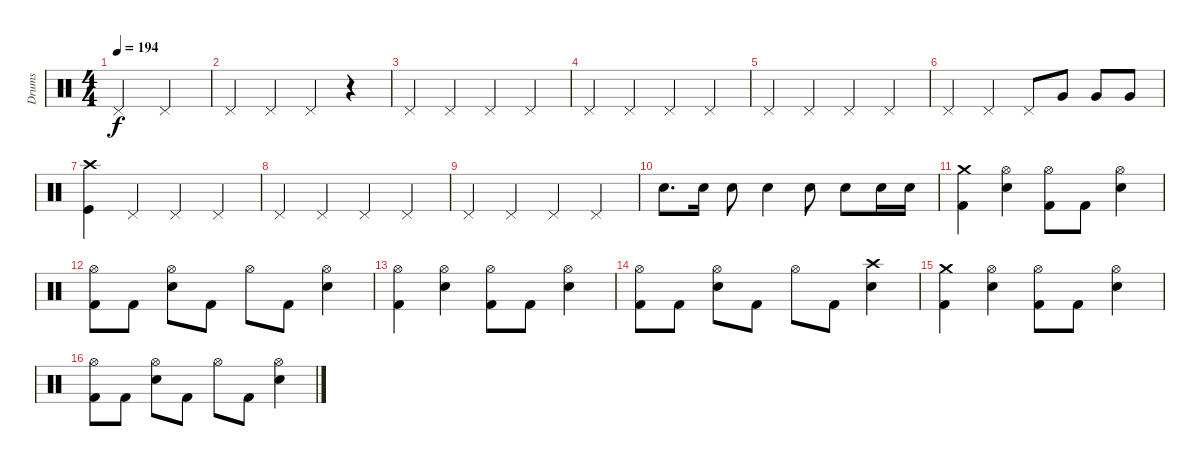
\track ("Drums" "Drums") {instrument percussion}
\staff {score}
\articulation defaults
\ts (4 4)
\tempo 194
\clef neutral
\ks c "Pedal Hi-Hat (hit)".2{dy f} "Pedal Hi-Hat (hit)".2
|
"Pedal Hi-Hat (hit)".4 "Pedal Hi-Hat (hit)".4 "Pedal Hi-Hat (hit)".4 r.4 |
"Pedal Hi-Hat (hit)".4 "Pedal Hi-Hat (hit)".4 "Pedal Hi-Hat (hit)".4 "Pedal Hi-Hat (hit)".4 |
"Pedal Hi-Hat (hit)".4 "Pedal Hi-Hat (hit)".4 "Pedal Hi-Hat (hit)".4 "Pedal Hi-Hat (hit)".4 |
"Pedal Hi-Hat (hit)".4 "Pedal Hi-Hat (hit)".4 "Pedal Hi-Hat (hit)".4 "Pedal Hi-Hat (hit)".4 |
"Pedal Hi-Hat (hit)".4 "Pedal Hi-Hat (hit)".4 "Pedal Hi-Hat (hit)".8 "Very Low Tom (hit)".8 "Very Low Tom (hit)".8 "Very Low Tom (hit)".8 |
("Kick (hit)" "Crash high (hit)").4 "Pedal Hi-Hat (hit)".4 "Pedal Hi-Hat (hit)".4 "Pedal Hi-Hat (hit)".4 |
"Pedal Hi-Hat (hit)".4 "Pedal Hi-Hat (hit)".4 "Pedal Hi-Hat (hit)".4 "Pedal Hi-Hat (hit)".4 |
"Pedal Hi-Hat (hit)".4 "Pedal Hi-Hat (hit)".4 "Pedal Hi-Hat (hit)".4 "Pedal Hi-Hat (hit)".4 |
"Snare (hit) 2".8{d} "Snare (hit) 2".16 "Snare (hit) 2".8 "Snare (hit) 2".4 "Snare (hit) 2".8 "Snare (hit) 2".8 "Snare (hit) 2".16 "Snare (hit) 2".16 |
("Crash medium (hit)" "Kick (hit) 2").4 ("Hi-Hat (open)" "Snare (hit) 2").4 ("Hi-Hat (open)" "Kick (hit) 2").8 "Kick (hit) 2".8 ("Hi-Hat (open)" "Snare (hit) 2").4 |
("Hi-Hat (open)" "Kick (hit) 2").8 "Kick (hit) 2".8 ("Hi-Hat (open)" "Snare (hit) 2").8 "Kick (hit) 2".8 "Hi-Hat (open)".8 "Kick (hit) 2".8 ("Hi-Hat (open)" "Snare (hit) 2").4 |
("Hi-Hat (open)" "Kick (hit) 2").4 ("Hi-Hat (open)" "Snare (hit) 2").4 ("Hi-Hat (open)" "Kick (hit) 2").8 "Kick (hit) 2".8 ("Hi-Hat (open)" "Snare (hit) 2").4 |
("Hi-Hat (open)" "Kick (hit) 2").8 "Kick (hit) 2".8 ("Hi-Hat (open)" "Snare (hit) 2").8 "Kick (hit) 2".8 "Hi-Hat (open)".8 "Kick (hit) 2".8 ("Crash high (hit)" "Snare (hit) 2").4 |
("Crash medium (hit)" "Kick (hit) 2").4 ("Hi-Hat (open)" "Snare (hit) 2").4 ("Hi-Hat (open)" "Kick (hit) 2").8 "Kick (hit) 2".8 ("Hi-Hat (open)" "Snare (hit) 2").4 |
("Hi-Hat (open)" "Kick (hit) 2").8 "Kick (hit) 2".8 ("Hi-Hat (open)" "Snare (hit) 2").8 "Kick (hit) 2".8 "Hi-Hat (open)".8 "Kick (hit) 2".8 ("Hi-Hat (open)" "Snare (hit) 2").4
